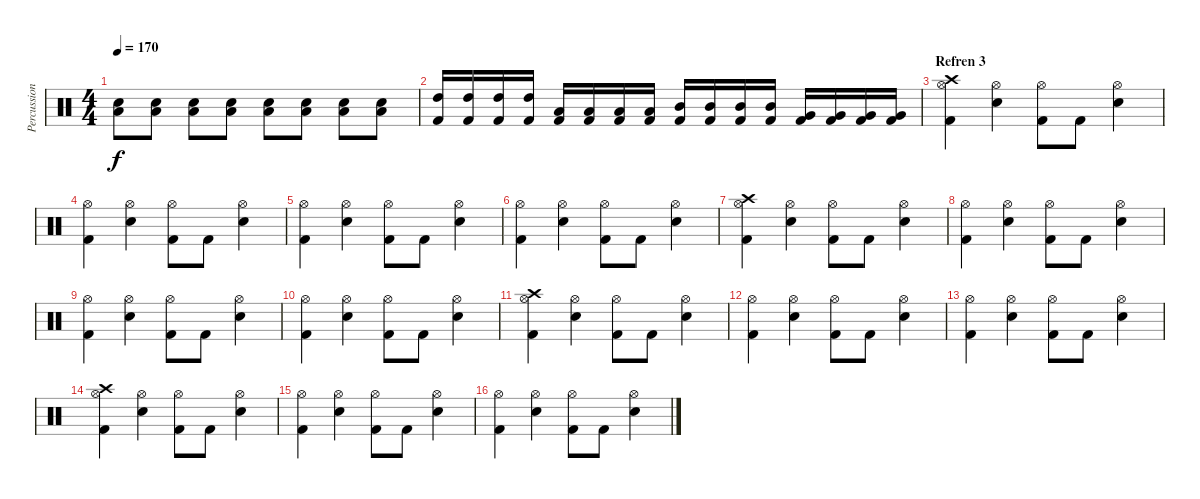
\track ("Percussion - Who the fuck knows" "Percussion") {instrument percussion}
\staff {score}
\articulation defaults
\ts (4 4)
\tempo 170
\clef neutral
\ks c
("Low Tom (hit)" "Snare (hit) 2").8{dy f} ("Low Tom (hit)" "Snare (hit) 2").8 ("Low Tom (hit)" "Snare (hit) 2").8 ("Low Tom (hit)" "Snare (hit) 2").8 ("Low Tom (hit)" "Snare (hit) 2").8 ("Low Tom (hit)" "Snare (hit) 2").8 ("Low Tom (hit)" "Snare (hit) 2").8 ("Low Tom (hit)" "Snare (hit) 2").8 |
("High Tom (hit)" "Kick (hit) 2").16 ("High Tom (hit)" "Kick (hit) 2").16 ("High Tom (hit)" "Kick (hit) 2").16 ("High Tom (hit)" "Kick (hit) 2").16 ("Low Tom (hit)" "Kick (hit) 2").16 ("Low Tom (hit)" "Kick (hit) 2").16 ("Low Tom (hit)" "Kick (hit) 2").16 ("Low Tom (hit)" "Kick (hit) 2").16 ("Mid Tom (hit)" "Kick (hit) 2").16 ("Mid Tom (hit)" "Kick (hit) 2").16 ("Mid Tom (hit)" "Kick (hit) 2").16 ("Mid Tom (hit)" "Kick (hit) 2").16 ("Very Low Tom (hit)" "Kick (hit) 2").16 ("Very Low Tom (hit)" "Kick (hit) 2").16 ("Very Low Tom (hit)" "Kick (hit) 2").16 ("Very Low Tom (hit)" "Kick (hit) 2").16 |
\section ("" "Refren 3")
("Crash high (hit)" "Kick (hit) 2" "Hi-Hat (open)").4 ("Hi-Hat (open)" "Snare (hit) 2").4 ("Hi-Hat (open)" "Kick (hit) 2").8 "Kick (hit) 2".8 ("Hi-Hat (open)" "Snare (hit) 2").4 |
("Hi-Hat (open)" "Kick (hit) 2").4 ("Hi-Hat (open)" "Snare (hit) 2").4 ("Hi-Hat (open)" "Kick (hit) 2").8 "Kick (hit) 2".8 ("Hi-Hat (open)" "Snare (hit) 2").4 |
("Hi-Hat (open)" "Kick (hit) 2").4 ("Hi-Hat (open)" "Snare (hit) 2").4 ("Hi-Hat (open)" "Kick (hit) 2").8 "Kick (hit) 2".8 ("Hi-Hat (open)" "Snare (hit) 2").4 |
("Hi-Hat (open)" "Kick (hit) 2").4 ("Hi-Hat (open)" "Snare (hit) 2").4 ("Hi-Hat (open)" "Kick (hit) 2").8 "Kick (hit) 2".8 ("Hi-Hat (open)" "Snare (hit) 2").4 |
("Crash high (hit)" "Kick (hit) 2" "Hi-Hat (open)").4 ("Hi-Hat (open)" "Snare (hit) 2").4 ("Hi-Hat (open)" "Kick (hit) 2").8 "Kick (hit) 2".8 ("Hi-Hat (open)" "Snare (hit) 2").4 |
("Hi-Hat (open)" "Kick (hit) 2").4 ("Hi-Hat (open)" "Snare (hit) 2").4 ("Hi-Hat (open)" "Kick (hit) 2").8 "Kick (hit) 2".8 ("Hi-Hat (open)" "Snare (hit) 2").4 |
("Hi-Hat (open)" "Kick (hit) 2").4 ("Hi-Hat (open)" "Snare (hit) 2").4 ("Hi-Hat (open)" "Kick (hit) 2").8 "Kick (hit) 2".8 ("Hi-Hat (open)" "Snare (hit) 2").4 |
("Hi-Hat (open)" "Kick (hit) 2").4 ("Hi-Hat (open)" "Snare (hit) 2").4 ("Hi-Hat (open)" "Kick (hit) 2").8 "Kick (hit) 2".8 ("Hi-Hat (open)" "Snare (hit) 2").4 |
("Crash high (hit)" "Kick (hit) 2" "Hi-Hat (open)").4 ("Hi-Hat (open)" "Snare (hit) 2").4 ("Hi-Hat (open)" "Kick (hit) 2").8 "Kick (hit) 2".8 ("Hi-Hat (open)" "Snare (hit) 2").4 |
("Hi-Hat (open)" "Kick (hit) 2").4 ("Hi-Hat (open)" "Snare (hit) 2").4 ("Hi-Hat (open)" "Kick (hit) 2").8 "Kick (hit) 2".8 ("Hi-Hat (open)" "Snare (hit) 2").4 |
("Hi-Hat (open)" "Kick (hit) 2").4 ("Hi-Hat (open)" "Snare (hit) 2").4 ("Hi-Hat (open)" "Kick (hit) 2").8 "Kick (hit) 2".8 ("Hi-Hat (open)" "Snare (hit) 2").4 |
("Crash high (hit)" "Kick (hit) 2" "Hi-Hat (open)").4 ("Hi-Hat (open)" "Snare (hit) 2").4 ("Hi-Hat (open)" "Kick (hit) 2").8 "Kick (hit) 2".8 ("Hi-Hat (open)" "Snare (hit) 2").4 |
("Hi-Hat (open)" "Kick (hit) 2").4 ("Hi-Hat (open)" "Snare (hit) 2").4 ("Hi-Hat (open)" "Kick (hit) 2").8 "Kick (hit) 2".8 ("Hi-Hat (open)" "Snare (hit) 2").4 |
("Hi-Hat (open)" "Kick (hit) 2").4 ("Hi-Hat (open)" "Snare (hit) 2").4 ("Hi-Hat (open)" "Kick (hit) 2").8 "Kick (hit) 2".8 ("Hi-Hat (open)" "Snare (hit) 2").4
